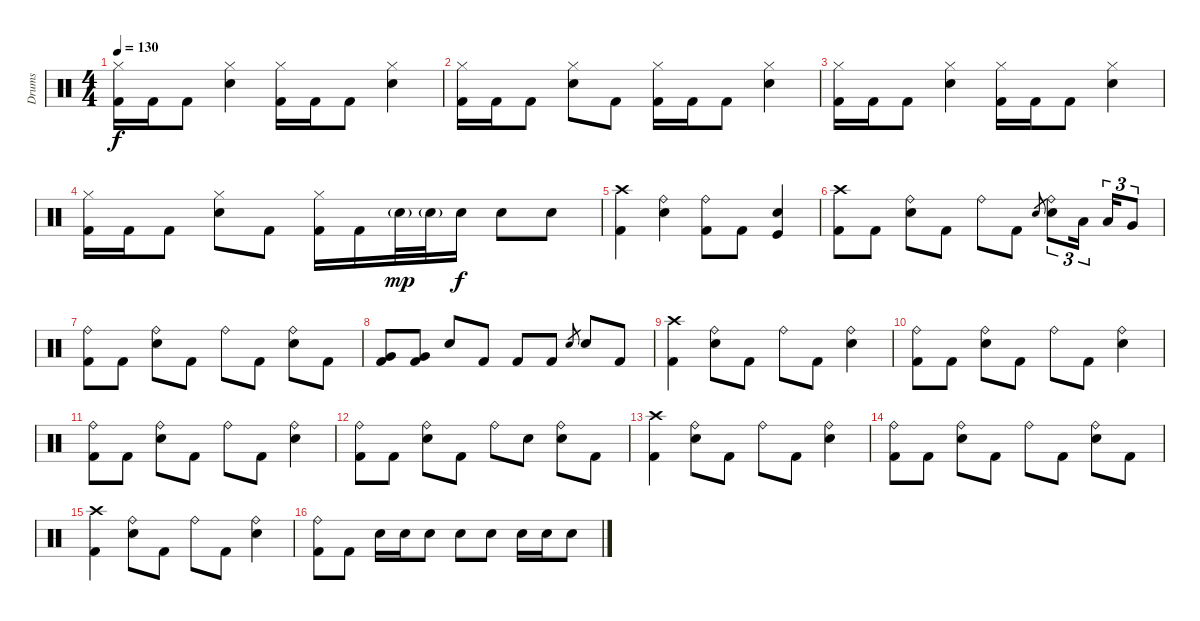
\track ("Drums" "Drums") {instrument percussion}
\staff {score}
\articulation defaults
\ts (4 4)
\tempo 130
\clef neutral
\ks c
("Hi-Hat (closed)" "Kick (hit) 2").16{dy f} "Kick (hit) 2".16 "Kick (hit) 2".8 ("Hi-Hat (closed)" "Electric Snare (hit)").4 ("Hi-Hat (closed)" "Kick (hit) 2").16 "Kick (hit) 2".16 "Kick (hit) 2".8 ("Hi-Hat (closed)" "Electric Snare (hit)").4 |
("Hi-Hat (closed)" "Kick (hit) 2").16 "Kick (hit) 2".16 "Kick (hit) 2".8 ("Hi-Hat (closed)" "Electric Snare (hit)").8 "Kick (hit) 2".8 ("Hi-Hat (closed)" "Kick (hit) 2").16 "Kick (hit) 2".16 "Kick (hit) 2".8 ("Hi-Hat (closed)" "Electric Snare (hit)").4 |
("Hi-Hat (closed)" "Kick (hit) 2").16 "Kick (hit) 2".16 "Kick (hit) 2".8 ("Hi-Hat (closed)" "Electric Snare (hit)").4 ("Hi-Hat (closed)" "Kick (hit) 2").16 "Kick (hit) 2".16 "Kick (hit) 2".8 ("Hi-Hat (closed)" "Electric Snare (hit)").4 |
("Hi-Hat (closed)" "Kick (hit) 2").16 "Kick (hit) 2".16 "Kick (hit) 2".8 ("Hi-Hat (closed)" "Electric Snare (hit)").8 "Kick (hit) 2".8 ("Hi-Hat (closed)" "Kick (hit) 2").16 "Kick (hit) 2".16 "Electric Snare (hit)"{g}.32{dy mp} "Electric Snare (hit)"{g}.32 "Electric Snare (hit)".16{dy f} "Electric Snare (hit)".8 "Electric Snare (hit)".8 |
("Crash high (hit)" "Kick (hit) 2").4 ("Ride (bell)" "Electric Snare (hit)").4 ("Ride (bell)" "Kick (hit) 2").8 "Kick (hit) 2".8 ("Kick (hit)" "Electric Snare (hit)").4 |
("Crash high (hit)" "Kick (hit) 2").8 "Kick (hit) 2".8 ("Ride (bell)" "Electric Snare (hit)").8 "Kick (hit) 2".8 "Ride (bell)".8 "Kick (hit) 2".8 "Electric Snare (hit)".8{gr} ("Ride (bell)" "Electric Snare (hit)").8{tu (3 2)} "Low Tom (hit)".16{tu (3 2) beam splitsecondary} "Low Tom (hit)".16{tu (3 2)} "Very Low Tom (hit)".8{tu (3 2)} |
("Ride (bell)" "Kick (hit) 2").8 "Kick (hit) 2".8 ("Ride (bell)" "Electric Snare (hit)").8 "Kick (hit) 2".8 "Ride (bell)".8 "Kick (hit) 2".8 ("Ride (bell)" "Electric Snare (hit)").8 "Kick (hit) 2".8 |
("Very Low Tom (hit)" "Kick (hit) 2").8 ("Very Low Tom (hit)" "Kick (hit) 2").8 "Electric Snare (hit)".8 "Kick (hit) 2".8 "Kick (hit) 2".8 "Kick (hit) 2".8 "Electric Snare (hit)".8{gr} "Electric Snare (hit)".8 "Kick (hit) 2".8 |
("Crash high (hit)" "Kick (hit) 2").4 ("Ride (bell)" "Electric Snare (hit)").8 "Kick (hit) 2".8 "Ride (bell)".8 "Kick (hit) 2".8 ("Ride (bell)" "Electric Snare (hit)").4 |
("Ride (bell)" "Kick (hit) 2").8 "Kick (hit) 2".8 ("Ride (bell)" "Electric Snare (hit)").8 "Kick (hit) 2".8 "Ride (bell)".8 "Kick (hit) 2".8 ("Ride (bell)" "Electric Snare (hit)").4 |
("Ride (bell)" "Kick (hit) 2").8 "Kick (hit) 2".8 ("Ride (bell)" "Electric Snare (hit)").8 "Kick (hit) 2".8 "Ride (bell)".8 "Kick (hit) 2".8 ("Ride (bell)" "Electric Snare (hit)").4 |
("Ride (bell)" "Kick (hit) 2").8 "Kick (hit) 2".8 ("Ride (bell)" "Electric Snare (hit)").8 "Kick (hit) 2".8 "Ride (bell)".8 "Electric Snare (hit)".8 ("Ride (bell)" "Electric Snare (hit)").8 "Kick (hit) 2".8 |
("Crash high (hit)" "Kick (hit) 2").4 ("Ride (bell)" "Electric Snare (hit)").8 "Kick (hit) 2".8 "Ride (bell)".8 "Kick (hit) 2".8 ("Ride (bell)" "Electric Snare (hit)").4 |
("Ride (bell)" "Kick (hit) 2").8 "Kick (hit) 2".8 ("Ride (bell)" "Electric Snare (hit)").8 "Kick (hit) 2".8 "Ride (bell)".8 "Kick (hit) 2".8 ("Ride (bell)" "Electric Snare (hit)").8 "Kick (hit) 2".8 |
("Crash high (hit)" "Kick (hit) 2").4 ("Ride (bell)" "Electric Snare (hit)").8 "Kick (hit) 2".8 "Ride (bell)".8 "Kick (hit) 2".8 ("Ride (bell)" "Electric Snare (hit)").4 |
("Ride (bell)" "Kick (hit) 2").8 "Kick (hit) 2".8 "Electric Snare (hit)".16 "Electric Snare (hit)".16 "Electric Snare (hit)".8 "Electric Snare (hit)".8 "Electric Snare (hit)".8 "Electric Snare (hit)".16 "Electric Snare (hit)".16 "Electric Snare (hit)".8
